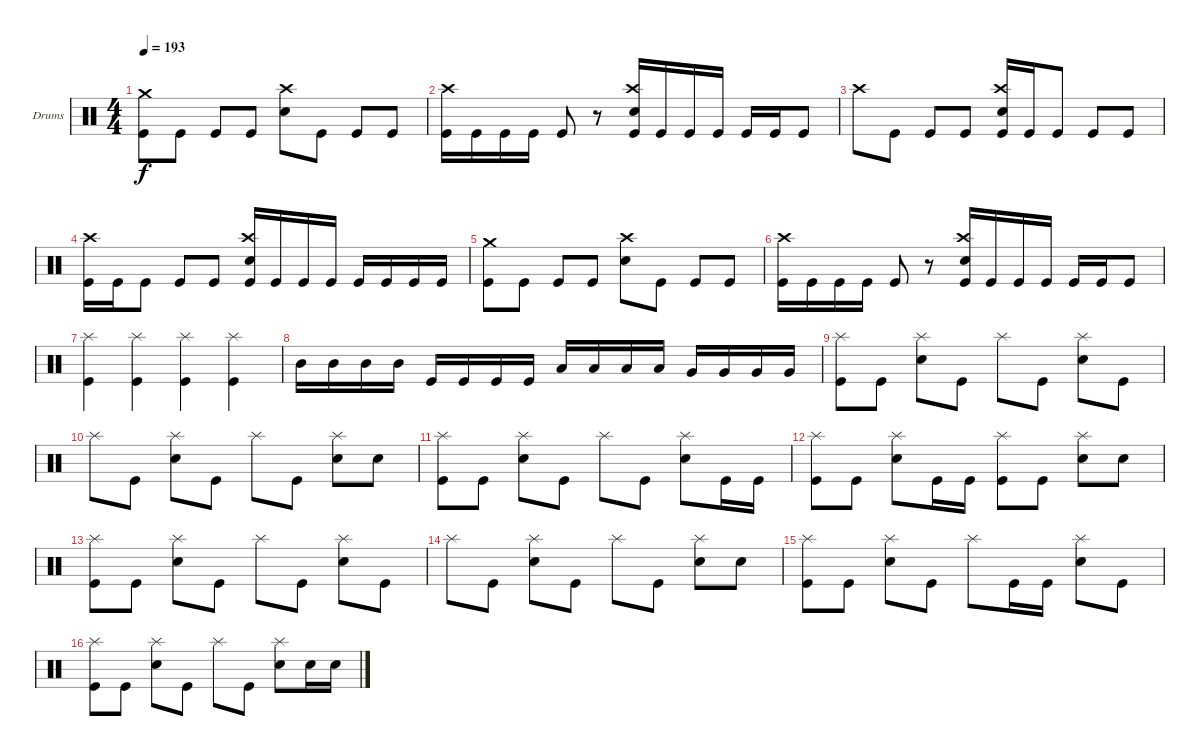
\bracketExtendMode groupsimilarinstruments
\firstSystemTrackNameOrientation horizontal
\otherSystemsTrackNameOrientation horizontal
\track ("Drumkit" "Drums") {instrument percussion}
\staff {score}
\articulation defaults
\ts (4 4)
\tempo 193
\clef neutral
\ks c
("Crash medium (hit)" "Kick (hit)").8{dy f} "Kick (hit)".8 "Kick (hit)".8 "Kick (hit)".8 ("Crash high (hit)" "Snare (hit) 2").8 "Kick (hit)".8 "Kick (hit)".8 "Kick (hit)".8 |
("Crash high (hit)" "Kick (hit)").16 "Kick (hit)".16 "Kick (hit)".16 "Kick (hit)".16 "Kick (hit)".8 r.8 ("Crash high (hit)" "Snare (hit) 2" "Kick (hit)").16 "Kick (hit)".16 "Kick (hit)".16 "Kick (hit)".16 "Kick (hit)".16 "Kick (hit)".16 "Kick (hit)".8 |
"Crash high (hit)".8 "Kick (hit)".8 "Kick (hit)".8 "Kick (hit)".8 ("Crash high (hit)" "Snare (hit) 2" "Kick (hit)").16 "Kick (hit)".16 "Kick (hit)".8 "Kick (hit)".8 "Kick (hit)".8 |
("Crash high (hit)" "Kick (hit)").16 "Kick (hit)".16 "Kick (hit)".8 "Kick (hit)".8 "Kick (hit)".8 ("Crash high (hit)" "Snare (hit) 2" "Kick (hit)").16 "Kick (hit)".16 "Kick (hit)".16 "Kick (hit)".16 "Kick (hit)".16 "Kick (hit)".16 "Kick (hit)".16 "Kick (hit)".16 |
("Crash medium (hit)" "Kick (hit)").8 "Kick (hit)".8 "Kick (hit)".8 "Kick (hit)".8 ("Crash high (hit)" "Snare (hit) 2").8 "Kick (hit)".8 "Kick (hit)".8 "Kick (hit)".8 |
("Crash high (hit)" "Kick (hit)").16 "Kick (hit)".16 "Kick (hit)".16 "Kick (hit)".16 "Kick (hit)".8 r.8 ("Crash high (hit)" "Snare (hit) 2" "Kick (hit)").16 "Kick (hit)".16 "Kick (hit)".16 "Kick (hit)".16 "Kick (hit)".16 "Kick (hit)".16 "Kick (hit)".8 |
("Splash (hit)" "Kick (hit)").4 ("Splash (hit)" "Kick (hit)").4 ("Splash (hit)" "Kick (hit)").4 ("Splash (hit)" "Kick (hit)").4 |
"Mid Tom (hit)".16 "Mid Tom (hit)".16 "Mid Tom (hit)".16 "Mid Tom (hit)".16 "Kick (hit)".16 "Kick (hit)".16 "Kick (hit)".16 "Kick (hit)".16 "Low Tom (hit)".16 "Low Tom (hit)".16 "Low Tom (hit)".16 "Low Tom (hit)".16 "Very Low Tom (hit)".16 "Very Low Tom (hit)".16 "Very Low Tom (hit)".16 "Very Low Tom (hit)".16 |
("Splash (hit)" "Kick (hit)").8 "Kick (hit)".8 ("Splash (hit)" "Snare (hit) 2").8 "Kick (hit)".8 "Splash (hit)".8 "Kick (hit)".8 ("Splash (hit)" "Snare (hit) 2").8 "Kick (hit)".8 |
"Splash (hit)".8 "Kick (hit)".8 ("Splash (hit)" "Snare (hit) 2").8 "Kick (hit)".8 "Splash (hit)".8 "Kick (hit)".8 ("Splash (hit)" "Snare (hit) 2").8 "Snare (hit) 2".8 |
("Splash (hit)" "Kick (hit)").8 "Kick (hit)".8 ("Splash (hit)" "Snare (hit) 2").8 "Kick (hit)".8 "Splash (hit)".8 "Kick (hit)".8 ("Splash (hit)" "Snare (hit) 2").8 "Kick (hit)".16 "Kick (hit)".16 |
("Splash (hit)" "Kick (hit)").8 "Kick (hit)".8 ("Splash (hit)" "Snare (hit) 2").8 "Kick (hit)".16 "Kick (hit)".16 ("Splash (hit)" "Kick (hit)").8 "Kick (hit)".8 ("Splash (hit)" "Snare (hit) 2").8 "Snare (hit) 2".8 |
("Splash (hit)" "Kick (hit)").8 "Kick (hit)".8 ("Splash (hit)" "Snare (hit) 2").8 "Kick (hit)".8 "Splash (hit)".8 "Kick (hit)".8 ("Splash (hit)" "Snare (hit) 2").8 "Kick (hit)".8 |
"Splash (hit)".8 "Kick (hit)".8 ("Splash (hit)" "Snare (hit) 2").8 "Kick (hit)".8 "Splash (hit)".8 "Kick (hit)".8 ("Splash (hit)" "Snare (hit) 2").8 "Snare (hit) 2".8 |
("Splash (hit)" "Kick (hit)").8 "Kick (hit)".8 ("Splash (hit)" "Snare (hit) 2").8 "Kick (hit)".8 "Splash (hit)".8 "Kick (hit)".16 "Kick (hit)".16 ("Splash (hit)" "Snare (hit) 2").8 "Kick (hit)".8 |
("Splash (hit)" "Kick (hit)").8 "Kick (hit)".8 ("Splash (hit)" "Snare (hit) 2").8 "Kick (hit)".8 "Splash (hit)".8 "Kick (hit)".8 ("Splash (hit)" "Snare (hit) 2").8 "Snare (hit) 2".16 "Snare (hit) 2".16
